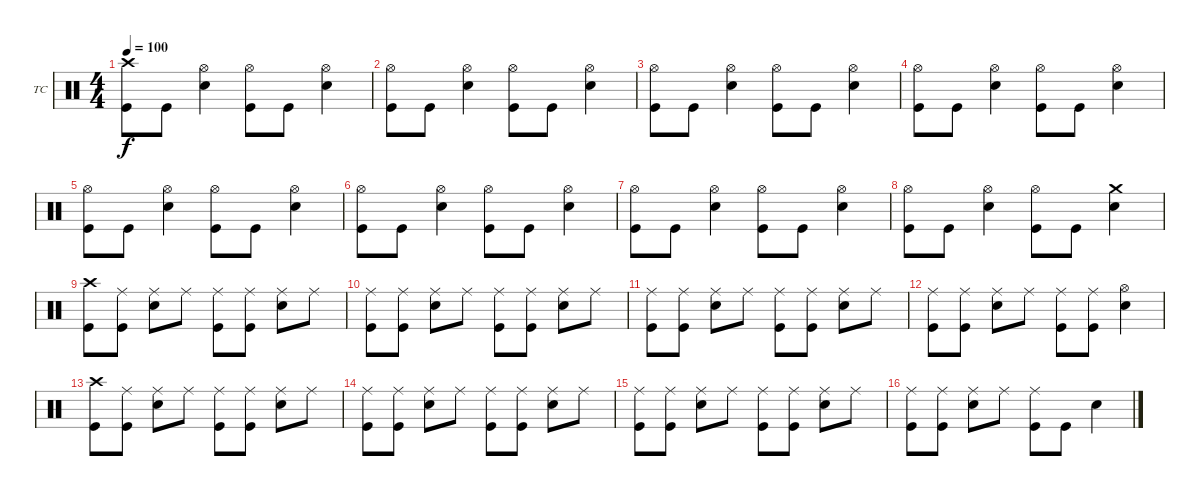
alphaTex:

\defaultSystemsLayout 4
\bracketExtendMode groupsimilarinstruments
\firstSystemTrackNameOrientation horizontal
\otherSystemsTrackNameOrientation horizontal
\track ("Drums - Tre Cool" "TC") {instrument percussion}
\staff {score}
\articulation defaults
\ts (4 4)
\tempo 100
\clef neutral
\ks c
("Crash high (hit)" "Kick (hit)").8{dy f} "Kick (hit)".8 ("Hi-Hat (open)" "Snare (hit) 2").4 ("Hi-Hat (open)" "Kick (hit)").8 "Kick (hit)".8 ("Hi-Hat (open)" "Snare (hit) 2").4 |
("Hi-Hat (open)" "Kick (hit)").8 "Kick (hit)".8 ("Hi-Hat (open)" "Snare (hit) 2").4 ("Hi-Hat (open)" "Kick (hit)").8 "Kick (hit)".8 ("Hi-Hat (open)" "Snare (hit) 2").4 |
("Hi-Hat (open)" "Kick (hit)").8 "Kick (hit)".8 ("Hi-Hat (open)" "Snare (hit) 2").4 ("Hi-Hat (open)" "Kick (hit)").8 "Kick (hit)".8 ("Hi-Hat (open)" "Snare (hit) 2").4 |
("Hi-Hat (open)" "Kick (hit)").8 "Kick (hit)".8 ("Hi-Hat (open)" "Snare (hit) 2").4 ("Hi-Hat (open)" "Kick (hit)").8 "Kick (hit)".8 ("Hi-Hat (open)" "Snare (hit) 2").4 |
("Hi-Hat (open)" "Kick (hit)").8 "Kick (hit)".8 ("Hi-Hat (open)" "Snare (hit) 2").4 ("Hi-Hat (open)" "Kick (hit)").8 "Kick (hit)".8 ("Hi-Hat (open)" "Snare (hit) 2").4 |
("Hi-Hat (open)" "Kick (hit)").8 "Kick (hit)".8 ("Hi-Hat (open)" "Snare (hit) 2").4 ("Hi-Hat (open)" "Kick (hit)").8 "Kick (hit)".8 ("Hi-Hat (open)" "Snare (hit) 2").4 |
("Hi-Hat (open)" "Kick (hit)").8 "Kick (hit)".8 ("Hi-Hat (open)" "Snare (hit) 2").4 ("Hi-Hat (open)" "Kick (hit)").8 "Kick (hit)".8 ("Hi-Hat (open)" "Snare (hit) 2").4 |
("Hi-Hat (open)" "Kick (hit)").8 "Kick (hit)".8 ("Hi-Hat (open)" "Snare (hit) 2").4 ("Hi-Hat (open)" "Kick (hit)").8 "Kick (hit)".8 ("Crash medium (hit)" "Snare (hit) 2").4 |
("Crash high (hit)" "Kick (hit)").8 ("Ride (middle)" "Kick (hit)").8 ("Ride (middle)" "Snare (hit) 2").8 "Ride (middle)".8 ("Ride (middle)" "Kick (hit)").8 ("Ride (middle)" "Kick (hit)").8 ("Ride (middle)" "Snare (hit) 2").8 "Ride (middle)".8 |
("Ride (middle)" "Kick (hit)").8 ("Ride (middle)" "Kick (hit)").8 ("Ride (middle)" "Snare (hit) 2").8 "Ride (middle)".8 ("Ride (middle)" "Kick (hit)").8 ("Ride (middle)" "Kick (hit)").8 ("Ride (middle)" "Snare (hit) 2").8 "Ride (middle)".8 |
("Ride (middle)" "Kick (hit)").8 ("Ride (middle)" "Kick (hit)").8 ("Ride (middle)" "Snare (hit) 2").8 "Ride (middle)".8 ("Ride (middle)" "Kick (hit)").8 ("Ride (middle)" "Kick (hit)").8 ("Ride (middle)" "Snare (hit) 2").8 "Ride (middle)".8 |
("Ride (middle)" "Kick (hit)").8 ("Ride (middle)" "Kick (hit)").8 ("Ride (middle)" "Snare (hit) 2").8 "Ride (middle)".8 ("Ride (middle)" "Kick (hit)").8 ("Ride (middle)" "Kick (hit)").8 ("Hi-Hat (open)" "Snare (hit) 2").4 |
("Crash high (hit)" "Kick (hit)").8 ("Ride (middle)" "Kick (hit)").8 ("Ride (middle)" "Snare (hit) 2").8 "Ride (middle)".8 ("Ride (middle)" "Kick (hit)").8 ("Ride (middle)" "Kick (hit)").8 ("Ride (middle)" "Snare (hit) 2").8 "Ride (middle)".8 |
("Ride (middle)" "Kick (hit)").8 ("Ride (middle)" "Kick (hit)").8 ("Ride (middle)" "Snare (hit) 2").8 "Ride (middle)".8 ("Ride (middle)" "Kick (hit)").8 ("Ride (middle)" "Kick (hit)").8 ("Ride (middle)" "Snare (hit) 2").8 "Ride (middle)".8 |
("Ride (middle)" "Kick (hit)").8 ("Ride (middle)" "Kick (hit)").8 ("Ride (middle)" "Snare (hit) 2").8 "Ride (middle)".8 ("Ride (middle)" "Kick (hit)").8 ("Ride (middle)" "Kick (hit)").8 ("Ride (middle)" "Snare (hit) 2").8 "Ride (middle)".8 |
("Ride (middle)" "Kick (hit)").8 ("Ride (middle)" "Kick (hit)").8 ("Ride (middle)" "Snare (hit) 2").8 "Ride (middle)".8 ("Ride (middle)" "Kick (hit)").8 "Kick (hit)".8 "Snare (hit) 2".4
